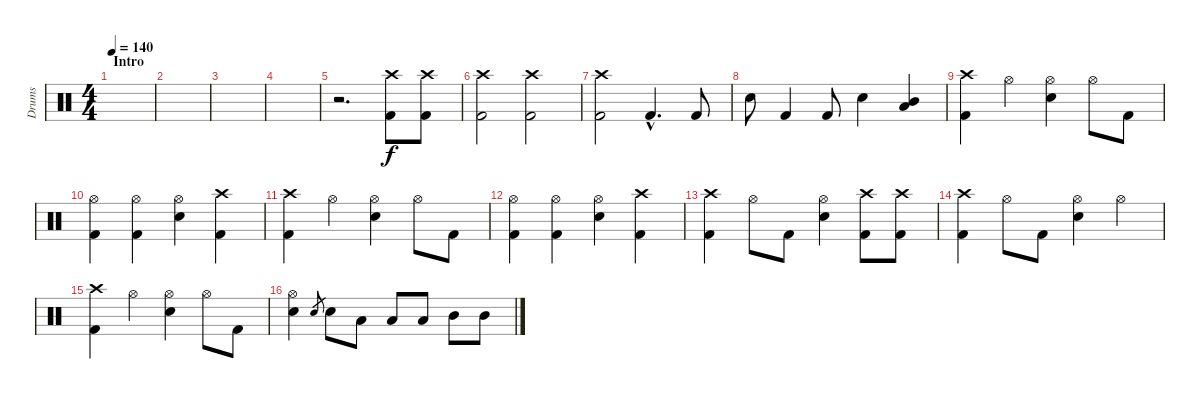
\track ("Drums" "Drums") {instrument percussion}
\staff {score}
\articulation defaults
\ts (4 4)
\section ("" "Intro")
\tempo 140
\clef neutral
\ks c
|
|
|
|
r.2{d} ("Crash high (hit)" "Kick (hit) 2").8 ("Crash high (hit)" "Kick (hit) 2").8 |
("Crash high (hit)" "Kick (hit) 2").2 ("Crash high (hit)" "Kick (hit) 2").2 |
("Crash high (hit)" "Kick (hit) 2").2 "Kick (hit) 2"{hac}.4{d} "Kick (hit) 2".8 |
"Snare (hit) 2".8 "Kick (hit) 2".4 "Kick (hit) 2".8 "Electric Snare (hit)".4 ("Mid Tom (hit)" "Low Tom (hit)").4 |
("Crash high (hit)" "Kick (hit) 2").4 "Hi-Hat (open)".4 ("Hi-Hat (open)" "Electric Snare (hit)").4 "Hi-Hat (open)".8 "Kick (hit) 2".8 |
("Hi-Hat (open)" "Kick (hit) 2").4 ("Hi-Hat (open)" "Kick (hit) 2").4 ("Hi-Hat (open)" "Electric Snare (hit)").4 ("Crash high (hit)" "Kick (hit) 2").4 |
("Crash high (hit)" "Kick (hit) 2").4 "Hi-Hat (open)".4 ("Hi-Hat (open)" "Electric Snare (hit)").4 "Hi-Hat (open)".8 "Kick (hit) 2".8 |
("Hi-Hat (open)" "Kick (hit) 2").4 ("Hi-Hat (open)" "Kick (hit) 2").4 ("Hi-Hat (open)" "Electric Snare (hit)").4 ("Crash high (hit)" "Kick (hit) 2").4 |
("Crash high (hit)" "Kick (hit) 2").4 "Hi-Hat (open)".8 "Kick (hit) 2".8 ("Hi-Hat (open)" "Electric Snare (hit)").4 ("Crash high (hit)" "Kick (hit) 2").8 ("Crash high (hit)" "Kick (hit) 2").8 |
("Crash high (hit)" "Kick (hit) 2").4 "Hi-Hat (open)".8 "Kick (hit) 2".8 ("Hi-Hat (open)" "Electric Snare (hit)").4 "Hi-Hat (open)".4 |
("Crash high (hit)" "Kick (hit) 2").4 "Hi-Hat (open)".4 ("Hi-Hat (open)" "Electric Snare (hit)").4 "Hi-Hat (open)".8 "Kick (hit) 2".8 |
("Hi-Hat (open)" "Electric Snare (hit)").4 "Electric Snare (hit)".8{gr} "Electric Snare (hit)".8 "Low Tom (hit)".8 "Low Tom (hit)".8 "Low Tom (hit)".8 "Mid Tom (hit)".8 "Mid Tom (hit)".8
